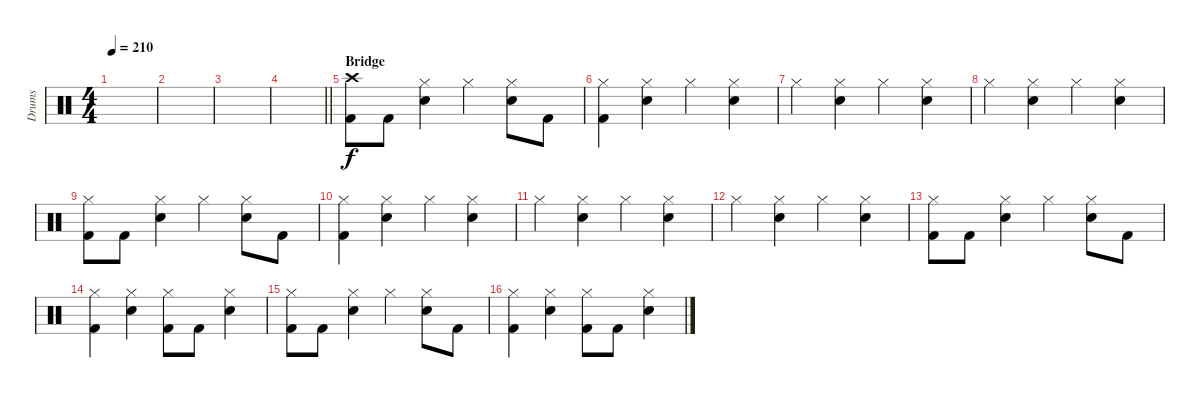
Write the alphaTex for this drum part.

\track ("Drums" "Drums") {instrument percussion}
\staff {score}
\articulation defaults
\ts (4 4)
\tempo 210
\clef neutral
\ks c
|
|
|
\barLineRight lightlight
|
\section ("" "Bridge")
("Crash high (hit)" "Kick (hit) 2").8 "Kick (hit) 2".8 ("Hi-Hat (closed)" "Snare (hit) 2").4 "Hi-Hat (closed)".4 ("Hi-Hat (closed)" "Snare (hit) 2").8 "Kick (hit) 2".8 |
("Hi-Hat (closed)" "Kick (hit) 2").4 ("Hi-Hat (closed)" "Snare (hit) 2").4 "Hi-Hat (closed)".4 ("Hi-Hat (closed)" "Snare (hit) 2").4 |
"Hi-Hat (closed)".4 ("Hi-Hat (closed)" "Snare (hit) 2").4 "Hi-Hat (closed)".4 ("Hi-Hat (closed)" "Snare (hit) 2").4 |
"Hi-Hat (closed)".4 ("Hi-Hat (closed)" "Snare (hit) 2").4 "Hi-Hat (closed)".4 ("Hi-Hat (closed)" "Snare (hit) 2").4 |
("Hi-Hat (closed)" "Kick (hit) 2").8 "Kick (hit) 2".8 ("Hi-Hat (closed)" "Snare (hit) 2").4 "Hi-Hat (closed)".4 ("Hi-Hat (closed)" "Snare (hit) 2").8 "Kick (hit) 2".8 |
("Hi-Hat (closed)" "Kick (hit) 2").4 ("Hi-Hat (closed)" "Snare (hit) 2").4 "Hi-Hat (closed)".4 ("Hi-Hat (closed)" "Snare (hit) 2").4 |
"Hi-Hat (closed)".4 ("Hi-Hat (closed)" "Snare (hit) 2").4 "Hi-Hat (closed)".4 ("Hi-Hat (closed)" "Snare (hit) 2").4 |
"Hi-Hat (closed)".4 ("Hi-Hat (closed)" "Snare (hit) 2").4 "Hi-Hat (closed)".4 ("Hi-Hat (closed)" "Snare (hit) 2").4 |
("Hi-Hat (closed)" "Kick (hit) 2").8 "Kick (hit) 2".8 ("Hi-Hat (closed)" "Snare (hit) 2").4 "Hi-Hat (closed)".4 ("Hi-Hat (closed)" "Snare (hit) 2").8 "Kick (hit) 2".8 |
("Hi-Hat (closed)" "Kick (hit) 2").4 ("Hi-Hat (closed)" "Snare (hit) 2").4 ("Hi-Hat (closed)" "Kick (hit) 2").8 "Kick (hit) 2".8 ("Hi-Hat (closed)" "Snare (hit) 2").4 |
("Hi-Hat (closed)" "Kick (hit) 2").8 "Kick (hit) 2".8 ("Hi-Hat (closed)" "Snare (hit) 2").4 "Hi-Hat (closed)".4 ("Hi-Hat (closed)" "Snare (hit) 2").8 "Kick (hit) 2".8 |
("Hi-Hat (closed)" "Kick (hit) 2").4 ("Hi-Hat (closed)" "Snare (hit) 2").4 ("Hi-Hat (closed)" "Kick (hit) 2").8 "Kick (hit) 2".8 ("Hi-Hat (closed)" "Snare (hit) 2").4
